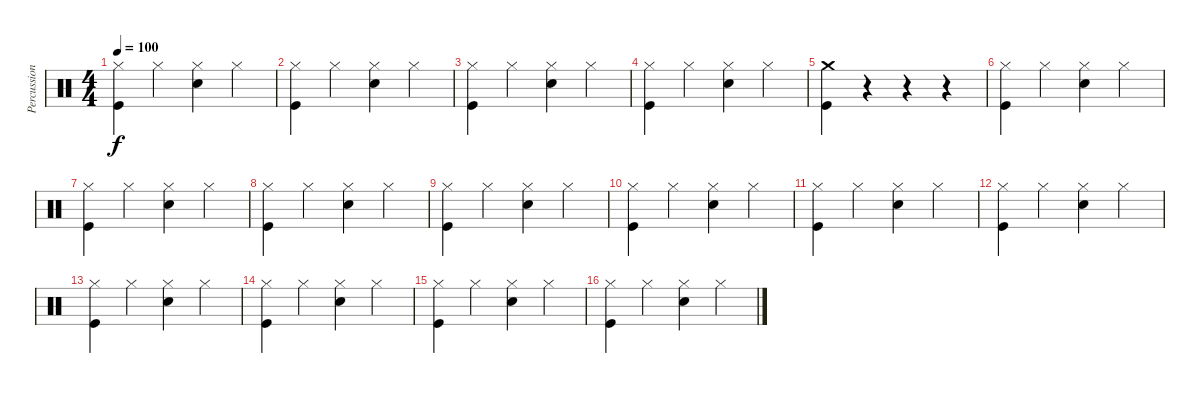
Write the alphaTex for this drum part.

\track ("Percussion" "Percussion") {instrument percussion}
\staff {score}
\articulation defaults
\ts (4 4)
\tempo 100
\clef neutral
\ks c
("Hi-Hat (closed)" "Kick (hit)").4{dy f} "Hi-Hat (closed)".4 ("Hi-Hat (closed)" "Electric Snare (hit)").4 "Hi-Hat (closed)".4 |
("Hi-Hat (closed)" "Kick (hit)").4 "Hi-Hat (closed)".4 ("Hi-Hat (closed)" "Electric Snare (hit)").4 "Hi-Hat (closed)".4 |
("Hi-Hat (closed)" "Kick (hit)").4 "Hi-Hat (closed)".4 ("Hi-Hat (closed)" "Electric Snare (hit)").4 "Hi-Hat (closed)".4 |
("Hi-Hat (closed)" "Kick (hit)").4 "Hi-Hat (closed)".4 ("Hi-Hat (closed)" "Electric Snare (hit)").4 "Hi-Hat (closed)".4 |
("Crash medium (hit)" "Kick (hit)").4 r.4 r.4 r.4 |
("Hi-Hat (closed)" "Kick (hit)").4 "Hi-Hat (closed)".4 ("Hi-Hat (closed)" "Electric Snare (hit)").4 "Hi-Hat (closed)".4 |
("Hi-Hat (closed)" "Kick (hit)").4 "Hi-Hat (closed)".4 ("Hi-Hat (closed)" "Electric Snare (hit)").4 "Hi-Hat (closed)".4 |
("Hi-Hat (closed)" "Kick (hit)").4 "Hi-Hat (closed)".4 ("Hi-Hat (closed)" "Electric Snare (hit)").4 "Hi-Hat (closed)".4 |
("Hi-Hat (closed)" "Kick (hit)").4 "Hi-Hat (closed)".4 ("Hi-Hat (closed)" "Electric Snare (hit)").4 "Hi-Hat (closed)".4 |
("Hi-Hat (closed)" "Kick (hit)").4 "Hi-Hat (closed)".4 ("Hi-Hat (closed)" "Electric Snare (hit)").4 "Hi-Hat (closed)".4 |
("Hi-Hat (closed)" "Kick (hit)").4 "Hi-Hat (closed)".4 ("Hi-Hat (closed)" "Electric Snare (hit)").4 "Hi-Hat (closed)".4 |
("Hi-Hat (closed)" "Kick (hit)").4 "Hi-Hat (closed)".4 ("Hi-Hat (closed)" "Electric Snare (hit)").4 "Hi-Hat (closed)".4 |
("Hi-Hat (closed)" "Kick (hit)").4 "Hi-Hat (closed)".4 ("Hi-Hat (closed)" "Electric Snare (hit)").4 "Hi-Hat (closed)".4 |
("Hi-Hat (closed)" "Kick (hit)").4 "Hi-Hat (closed)".4 ("Hi-Hat (closed)" "Electric Snare (hit)").4 "Hi-Hat (closed)".4 |
("Hi-Hat (closed)" "Kick (hit)").4 "Hi-Hat (closed)".4 ("Hi-Hat (closed)" "Electric Snare (hit)").4 "Hi-Hat (closed)".4 |
("Hi-Hat (closed)" "Kick (hit)").4 "Hi-Hat (closed)".4 ("Hi-Hat (closed)" "Electric Snare (hit)").4 "Hi-Hat (closed)".4
